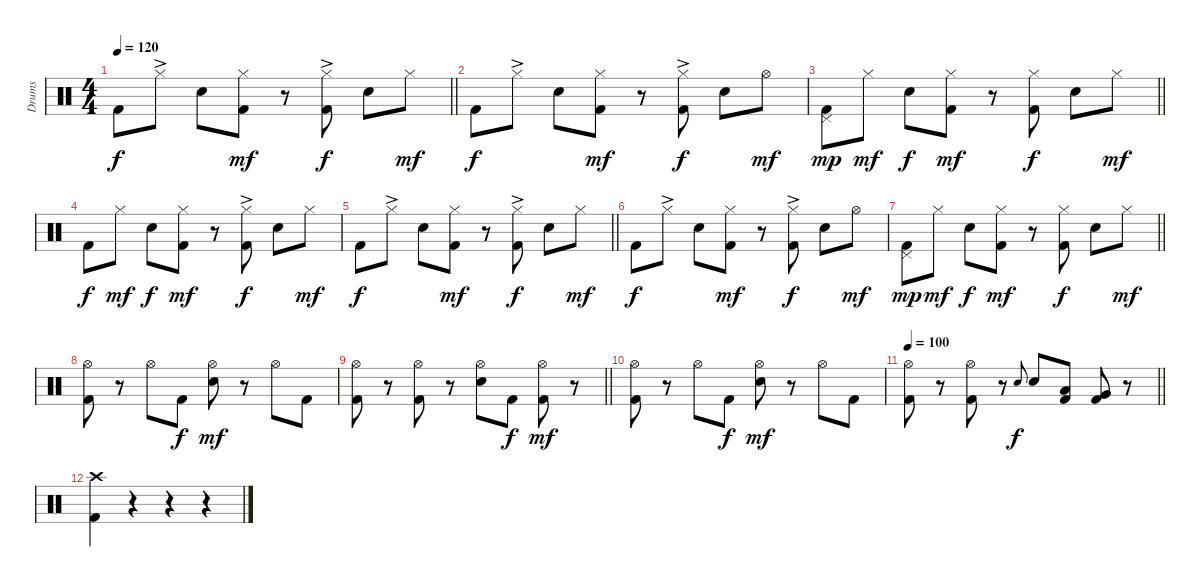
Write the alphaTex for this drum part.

\track ("Drums" "Drums") {instrument percussion}
\staff {score}
\articulation defaults
\ts (4 4)
\tempo 120
\clef neutral
\barLineRight lightlight
\ks c "Kick (hit) 2".8{dy f} "Hi-Hat (closed)"{ac}.8 "Snare (hit) 2".8
("Hi-Hat (closed)" "Kick (hit) 2").8{dy mf} r.8 ("Hi-Hat (closed)"{ac} "Kick (hit) 2").8{dy f} "Snare (hit) 2".8 "Hi-Hat (closed)".8{dy mf} |
"Kick (hit) 2".8{dy f} "Hi-Hat (closed)"{ac}.8 "Snare (hit) 2".8 ("Hi-Hat (closed)" "Kick (hit) 2").8{dy mf} r.8 ("Hi-Hat (closed)"{ac} "Kick (hit) 2").8{dy f} "Snare (hit) 2".8 "Hi-Hat (open)".8{dy mf} |
\barLineRight lightlight
("Pedal Hi-Hat (hit)" "Kick (hit) 2").8{dy mp} "Hi-Hat (closed)".8{dy mf} "Snare (hit) 2".8{dy f} ("Hi-Hat (closed)" "Kick (hit) 2").8{dy mf} r.8 ("Hi-Hat (closed)" "Kick (hit) 2").8{dy f} "Snare (hit) 2".8 "Hi-Hat (closed)".8{dy mf} |
"Kick (hit) 2".8{dy f} "Hi-Hat (closed)".8{dy mf} "Snare (hit) 2".8{dy f} ("Hi-Hat (closed)" "Kick (hit) 2").8{dy mf} r.8 ("Hi-Hat (closed)"{ac} "Kick (hit) 2").8{dy f} "Snare (hit) 2".8 "Hi-Hat (closed)".8{dy mf} |
\barLineRight lightlight "Kick (hit) 2".8{dy f} "Hi-Hat (closed)"{ac}.8 "Snare (hit) 2".8
("Hi-Hat (closed)" "Kick (hit) 2").8{dy mf} r.8 ("Hi-Hat (closed)"{ac} "Kick (hit) 2").8{dy f} "Snare (hit) 2".8 "Hi-Hat (closed)".8{dy mf} |
"Kick (hit) 2".8{dy f} "Hi-Hat (closed)"{ac}.8 "Snare (hit) 2".8 ("Hi-Hat (closed)" "Kick (hit) 2").8{dy mf} r.8 ("Hi-Hat (closed)"{ac} "Kick (hit) 2").8{dy f} "Snare (hit) 2".8 "Hi-Hat (open)".8{dy mf} |
\barLineRight lightlight
("Pedal Hi-Hat (hit)" "Kick (hit) 2").8{dy mp} "Hi-Hat (closed)".8{dy mf} "Snare (hit) 2".8{dy f} ("Hi-Hat (closed)" "Kick (hit) 2").8{dy mf} r.8 ("Hi-Hat (closed)" "Kick (hit) 2").8{dy f} "Snare (hit) 2".8 "Hi-Hat (closed)".8{dy mf} |
("Hi-Hat (open)" "Kick (hit) 2").8 r.8 "Hi-Hat (open)".8 "Kick (hit) 2".8{dy f} ("Hi-Hat (open)" "Snare (hit) 2").8{dy mf} r.8 "Hi-Hat (open)".8 "Kick (hit) 2".8 |
\barLineRight lightlight
("Hi-Hat (open)" "Kick (hit) 2").8 r.8 ("Hi-Hat (open)" "Kick (hit) 2").8 r.8 ("Hi-Hat (open)" "Snare (hit) 2").8 "Kick (hit) 2".8{dy f} ("Hi-Hat (open)" "Kick (hit) 2").8{dy mf} r.8 |
("Hi-Hat (open)" "Kick (hit) 2").8 r.8 "Hi-Hat (open)".8 "Kick (hit) 2".8{dy f} ("Hi-Hat (open)" "Snare (hit) 2").8{dy mf} r.8 "Hi-Hat (open)".8 "Kick (hit) 2".8 |
\tempo 100
\barLineRight lightlight
("Hi-Hat (open)" "Kick (hit) 2").8 r.8 ("Hi-Hat (open)" "Kick (hit) 2").8 r.8 "Snare (hit) 2".8{gr onbeat dy f} "Snare (hit) 2".8 ("Low Tom (hit)" "Kick (hit) 2").8 ("Very Low Tom (hit)" "Kick (hit) 2").8 r.8 |
("Crash high (hit)" "Kick (hit) 2").4 r.4 r.4 r.4
